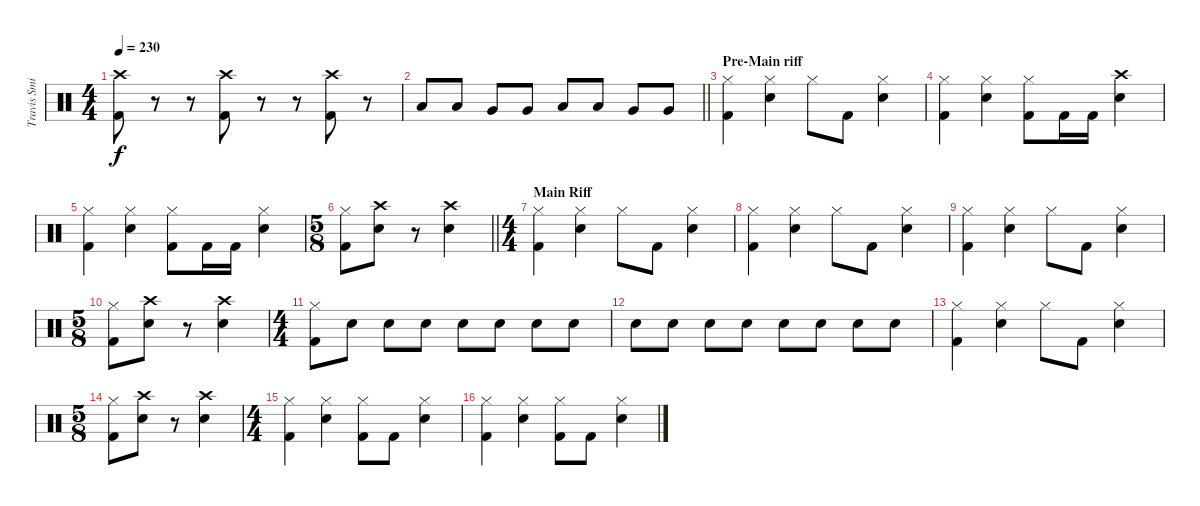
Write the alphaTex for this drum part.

\track ("Travis Smith (Drums)" "Travis Smi") {instrument percussion}
\staff {score}
\articulation defaults
\ts (4 4)
\tempo 230
\clef neutral
\ks c
("Crash high (hit)" "Kick (hit) 2").8{dy f} r.8 r.8 ("Crash high (hit)" "Kick (hit) 2").8 r.8 r.8 ("Crash high (hit)" "Kick (hit) 2").8 r.8 |
\barLineRight lightlight "Low Floor Tom (hit)".8 "Low Floor Tom (hit)".8 "Very Low Tom (hit)".8 "Very Low Tom (hit)".8 "Low Floor Tom (hit)".8 "Low Floor Tom (hit)".8 "Very Low Tom (hit)".8 "Very Low Tom (hit)".8
|
\section ("" "Pre-Main riff")
("Hi-Hat (closed)" "Kick (hit) 2").4 ("Hi-Hat (closed)" "Electric Snare (hit)").4 "Hi-Hat (closed)".8 "Kick (hit) 2".8 ("Hi-Hat (closed)" "Electric Snare (hit)").4 |
("Hi-Hat (closed)" "Kick (hit) 2").4 ("Hi-Hat (closed)" "Electric Snare (hit)").4 ("Hi-Hat (closed)" "Kick (hit) 2").8 "Kick (hit) 2".16 "Kick (hit) 2".16 ("Crash high (hit)" "Electric Snare (hit)").4 |
("Hi-Hat (closed)" "Kick (hit) 2").4 ("Hi-Hat (closed)" "Electric Snare (hit)").4 ("Hi-Hat (closed)" "Kick (hit) 2").8 "Kick (hit) 2".16 "Kick (hit) 2".16 ("Hi-Hat (closed)" "Electric Snare (hit)").4 |
\ts (5 8)
\barLineRight lightlight
("Hi-Hat (closed)" "Kick (hit) 2").8 ("Crash high (hit)" "Electric Snare (hit)").8 r.8 ("Crash high (hit)" "Electric Snare (hit)").4 |
\ts (4 4)
\section ("" "Main Riff")
("Hi-Hat (closed)" "Kick (hit) 2").4 ("Hi-Hat (closed)" "Electric Snare (hit)").4 "Hi-Hat (closed)".8 "Kick (hit) 2".8 ("Hi-Hat (closed)" "Electric Snare (hit)").4 |
("Hi-Hat (closed)" "Kick (hit) 2").4 ("Hi-Hat (closed)" "Electric Snare (hit)").4 "Hi-Hat (closed)".8 "Kick (hit) 2".8 ("Hi-Hat (closed)" "Electric Snare (hit)").4 |
("Hi-Hat (closed)" "Kick (hit) 2").4 ("Hi-Hat (closed)" "Electric Snare (hit)").4 "Hi-Hat (closed)".8 "Kick (hit) 2".8 ("Hi-Hat (closed)" "Electric Snare (hit)").4 |
\ts (5 8)
("Hi-Hat (closed)" "Kick (hit) 2").8 ("Crash high (hit)" "Electric Snare (hit)").8 r.8 ("Crash high (hit)" "Electric Snare (hit)").4 |
\ts (4 4)
("Hi-Hat (closed)" "Kick (hit) 2").8 "Electric Snare (hit)".8 "Electric Snare (hit)".8 "Electric Snare (hit)".8 "Electric Snare (hit)".8 "Electric Snare (hit)".8 "Electric Snare (hit)".8 "Electric Snare (hit)".8 |
"Electric Snare (hit)".8 "Electric Snare (hit)".8 "Electric Snare (hit)".8 "Electric Snare (hit)".8 "Electric Snare (hit)".8 "Electric Snare (hit)".8 "Electric Snare (hit)".8 "Electric Snare (hit)".8 |
("Hi-Hat (closed)" "Kick (hit) 2").4 ("Hi-Hat (closed)" "Electric Snare (hit)").4 "Hi-Hat (closed)".8 "Kick (hit) 2".8 ("Hi-Hat (closed)" "Electric Snare (hit)").4 |
\ts (5 8)
("Hi-Hat (closed)" "Kick (hit) 2").8 ("Crash high (hit)" "Electric Snare (hit)").8 r.8 ("Crash high (hit)" "Electric Snare (hit)").4 |
\ts (4 4)
("Hi-Hat (closed)" "Kick (hit) 2").4 ("Hi-Hat (closed)" "Electric Snare (hit)").4 ("Hi-Hat (closed)" "Kick (hit) 2").8 "Kick (hit) 2".8 ("Hi-Hat (closed)" "Electric Snare (hit)").4 |
("Hi-Hat (closed)" "Kick (hit) 2").4 ("Hi-Hat (closed)" "Electric Snare (hit)").4 ("Hi-Hat (closed)" "Kick (hit) 2").8 "Kick (hit) 2".8 ("Hi-Hat (closed)" "Electric Snare (hit)").4
